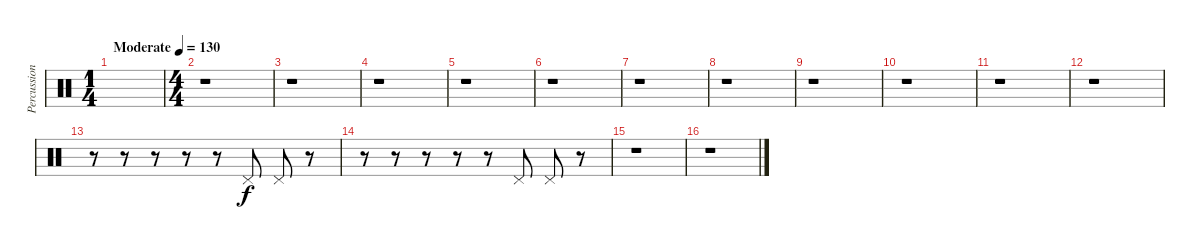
\track ("Percussion" "Percussion") {instrument percussion}
\staff {score}
\articulation defaults
\ts (1 4)
\tempo (130 "Moderate")
\clef neutral
\ks c
|
\ts (4 4)
r.1 |
r.1 |
r.1 |
r.1 |
r.1 |
r.1 |
r.1 |
r.1 |
r.1 |
r.1 |
r.1 |
r.8 r.8 r.8 r.8 r.8 "Pedal Hi-Hat (hit)".8 "Pedal Hi-Hat (hit)".8 r.8 |
r.8 r.8 r.8 r.8 r.8 "Pedal Hi-Hat (hit)".8 "Pedal Hi-Hat (hit)".8 r.8 |
r.1 |
r.1
